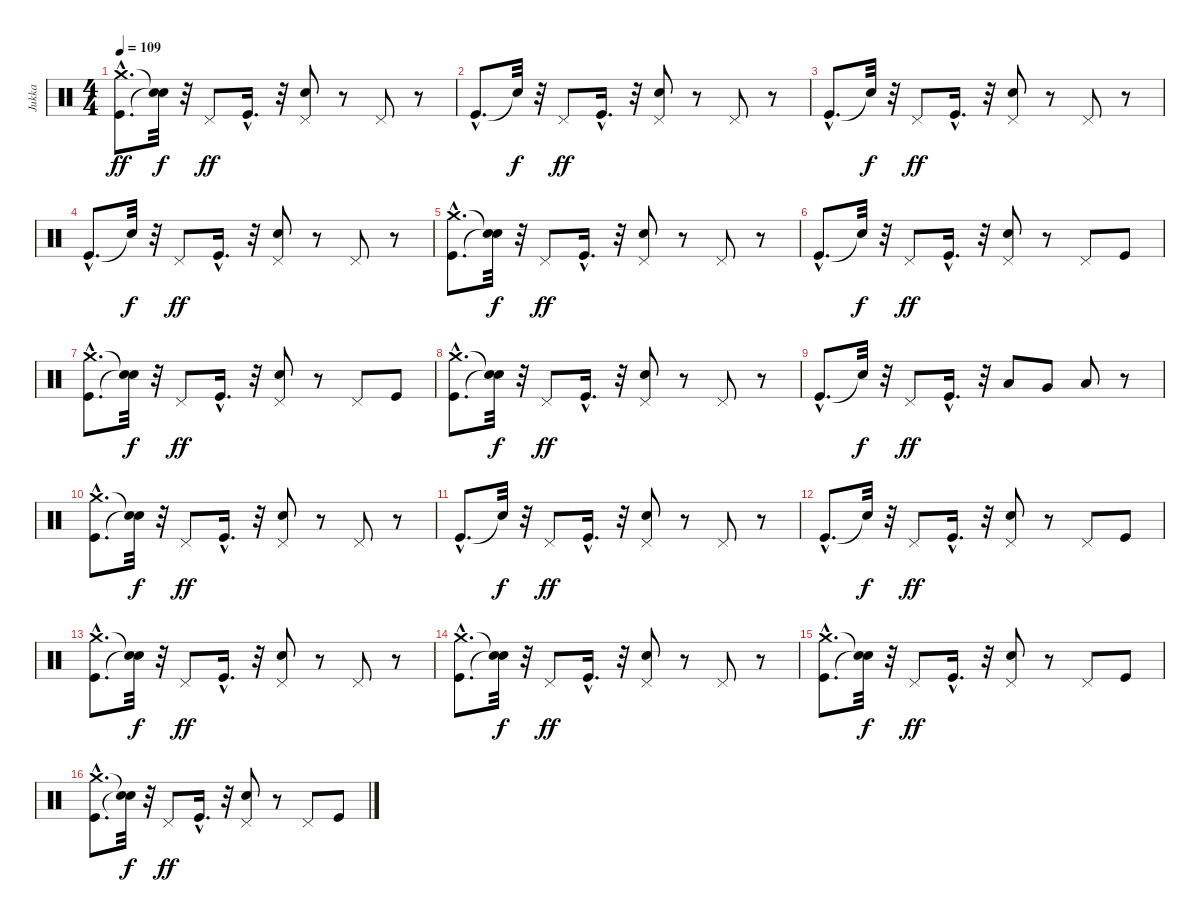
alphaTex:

\track ("Jukka" "Jukka") {instrument percussion}
\staff {score}
\articulation defaults
\ts (4 4)
\tempo 109
\clef neutral
\ks c
("Kick (hit)"{hac} "Crash medium (hit)"{hac}).8{d dy ff} ("Snare (hit)"{t} "Snare (hit)"{t}).32{dy f} r.32 "Pedal Hi-Hat (hit)".8{dy ff} "Kick (hit)"{hac}.16{d} r.32 ("Electric Snare (hit)" "Pedal Hi-Hat (hit)").8 r.8 "Pedal Hi-Hat (hit)".8 r.8 |
"Kick (hit)"{hac}.8{d} "Snare (hit)"{t}.32{dy f} r.32 "Pedal Hi-Hat (hit)".8{dy ff} "Kick (hit)"{hac}.16{d} r.32 ("Electric Snare (hit)" "Pedal Hi-Hat (hit)").8 r.8 "Pedal Hi-Hat (hit)".8 r.8 |
"Kick (hit)"{hac}.8{d} "Snare (hit)"{t}.32{dy f} r.32 "Pedal Hi-Hat (hit)".8{dy ff} "Kick (hit)"{hac}.16{d} r.32 ("Electric Snare (hit)" "Pedal Hi-Hat (hit)").8 r.8 "Pedal Hi-Hat (hit)".8 r.8 |
"Kick (hit)"{hac}.8{d} "Snare (hit)"{t}.32{dy f} r.32 "Pedal Hi-Hat (hit)".8{dy ff} "Kick (hit)"{hac}.16{d} r.32 ("Electric Snare (hit)" "Pedal Hi-Hat (hit)").8 r.8 "Pedal Hi-Hat (hit)".8 r.8 |
("Kick (hit)"{hac} "Crash medium (hit)"{hac}).8{d} ("Snare (hit)"{t} "Snare (hit)"{t}).32{dy f} r.32 "Pedal Hi-Hat (hit)".8{dy ff} "Kick (hit)"{hac}.16{d} r.32 ("Electric Snare (hit)" "Pedal Hi-Hat (hit)").8 r.8 "Pedal Hi-Hat (hit)".8 r.8 |
"Kick (hit)"{hac}.8{d} "Snare (hit)"{t}.32{dy f} r.32 "Pedal Hi-Hat (hit)".8{dy ff} "Kick (hit)"{hac}.16{d} r.32 ("Electric Snare (hit)" "Pedal Hi-Hat (hit)").8 r.8 "Pedal Hi-Hat (hit)".8 "Kick (hit)".8 |
("Kick (hit)"{hac} "Crash medium (hit)"{hac}).8{d} ("Snare (hit)"{t} "Snare (hit)"{t}).32{dy f} r.32 "Pedal Hi-Hat (hit)".8{dy ff} "Kick (hit)"{hac}.16{d} r.32 ("Electric Snare (hit)" "Pedal Hi-Hat (hit)").8 r.8 "Pedal Hi-Hat (hit)".8 "Kick (hit)".8 |
("Kick (hit)"{hac} "Crash medium (hit)"{hac}).8{d} ("Snare (hit)"{t} "Snare (hit)"{t}).32{dy f} r.32 "Pedal Hi-Hat (hit)".8{dy ff} "Kick (hit)"{hac}.16{d} r.32 ("Electric Snare (hit)" "Pedal Hi-Hat (hit)").8 r.8 "Pedal Hi-Hat (hit)".8 r.8 |
"Kick (hit)"{hac}.8{d} "Snare (hit)"{t}.32{dy f} r.32 "Pedal Hi-Hat (hit)".8{dy ff} "Kick (hit)"{hac}.16{d} r.32 "Low Tom (hit)".8 "Very Low Tom (hit)".8 "Low Floor Tom (hit)".8 r.8 |
("Kick (hit)"{hac} "Crash medium (hit)"{hac}).8{d} ("Snare (hit)"{t} "Snare (hit)"{t}).32{dy f} r.32 "Pedal Hi-Hat (hit)".8{dy ff} "Kick (hit)"{hac}.16{d} r.32 ("Electric Snare (hit)" "Pedal Hi-Hat (hit)").8 r.8 "Pedal Hi-Hat (hit)".8 r.8 |
"Kick (hit)"{hac}.8{d} "Snare (hit)"{t}.32{dy f} r.32 "Pedal Hi-Hat (hit)".8{dy ff} "Kick (hit)"{hac}.16{d} r.32 ("Electric Snare (hit)" "Pedal Hi-Hat (hit)").8 r.8 "Pedal Hi-Hat (hit)".8 r.8 |
"Kick (hit)"{hac}.8{d} "Snare (hit)"{t}.32{dy f} r.32 "Pedal Hi-Hat (hit)".8{dy ff} "Kick (hit)"{hac}.16{d} r.32 ("Electric Snare (hit)" "Pedal Hi-Hat (hit)").8 r.8 "Pedal Hi-Hat (hit)".8 "Kick (hit)".8 |
("Kick (hit)"{hac} "Crash medium (hit)"{hac}).8{d} ("Snare (hit)"{t} "Snare (hit)"{t}).32{dy f} r.32 "Pedal Hi-Hat (hit)".8{dy ff} "Kick (hit)"{hac}.16{d} r.32 ("Electric Snare (hit)" "Pedal Hi-Hat (hit)").8 r.8 "Pedal Hi-Hat (hit)".8 r.8 |
("Kick (hit)"{hac} "Crash medium (hit)"{hac}).8{d} ("Snare (hit)"{t} "Snare (hit)"{t}).32{dy f} r.32 "Pedal Hi-Hat (hit)".8{dy ff} "Kick (hit)"{hac}.16{d} r.32 ("Electric Snare (hit)" "Pedal Hi-Hat (hit)").8 r.8 "Pedal Hi-Hat (hit)".8 r.8 |
("Kick (hit)"{hac} "Crash medium (hit)"{hac}).8{d} ("Snare (hit)"{t} "Snare (hit)"{t}).32{dy f} r.32 "Pedal Hi-Hat (hit)".8{dy ff} "Kick (hit)"{hac}.16{d} r.32 ("Electric Snare (hit)" "Pedal Hi-Hat (hit)").8 r.8 "Pedal Hi-Hat (hit)".8 "Kick (hit)".8 |
("Kick (hit)"{hac} "Crash medium (hit)"{hac}).8{d} ("Snare (hit)"{t} "Snare (hit)"{t}).32{dy f} r.32 "Pedal Hi-Hat (hit)".8{dy ff} "Kick (hit)"{hac}.16{d} r.32 ("Electric Snare (hit)" "Pedal Hi-Hat (hit)").8 r.8 "Pedal Hi-Hat (hit)".8 "Kick (hit)".8
